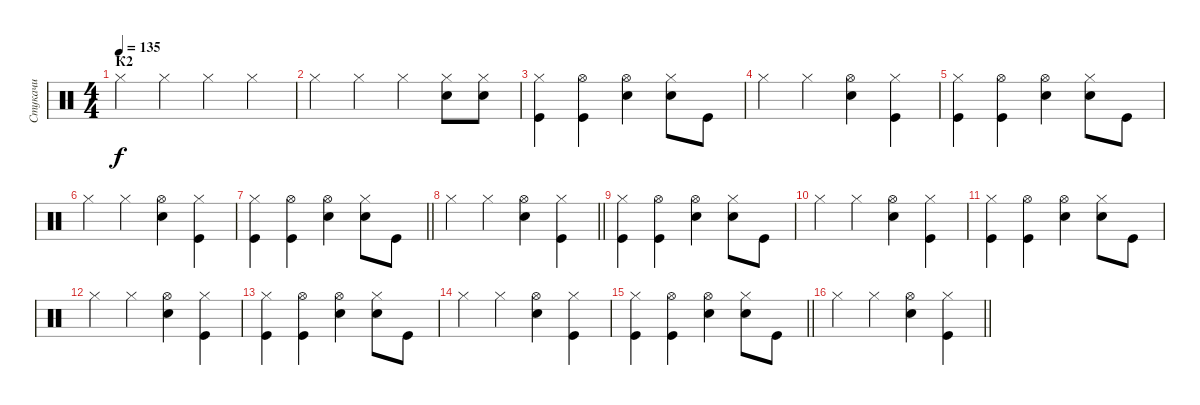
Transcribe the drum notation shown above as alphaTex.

\track ("Стукачи" "Стукачи") {instrument percussion}
\staff {score}
\articulation defaults
\ts (4 4)
\section ("" "К2")
\tempo 135
\clef neutral
\ks c "Hi-Hat (closed)".4{dy f} "Hi-Hat (closed)".4 "Hi-Hat (closed)".4 "Hi-Hat (closed)".4
|
"Hi-Hat (closed)".4 "Hi-Hat (closed)".4 "Hi-Hat (closed)".4 ("Hi-Hat (closed)" "Snare (hit) 2").8 ("Hi-Hat (closed)" "Snare (hit) 2").8 |
("Hi-Hat (closed)" "Kick (hit)").4 ("Hi-Hat (open)" "Kick (hit)").4 ("Hi-Hat (open)" "Snare (hit) 2").4 ("Hi-Hat (closed)" "Snare (hit) 2").8 "Kick (hit)".8 |
"Hi-Hat (closed)".4 "Hi-Hat (closed)".4 ("Hi-Hat (open)" "Snare (hit) 2").4 ("Hi-Hat (closed)" "Kick (hit)").4 |
("Hi-Hat (closed)" "Kick (hit)").4 ("Hi-Hat (open)" "Kick (hit)").4 ("Hi-Hat (open)" "Snare (hit) 2").4 ("Hi-Hat (closed)" "Snare (hit) 2").8 "Kick (hit)".8 |
"Hi-Hat (closed)".4 "Hi-Hat (closed)".4 ("Hi-Hat (open)" "Snare (hit) 2").4 ("Hi-Hat (closed)" "Kick (hit)").4 |
\barLineRight lightlight
("Hi-Hat (closed)" "Kick (hit)").4 ("Hi-Hat (open)" "Kick (hit)").4 ("Hi-Hat (open)" "Snare (hit) 2").4 ("Hi-Hat (closed)" "Snare (hit) 2").8 "Kick (hit)".8 |
\barLineRight lightlight "Hi-Hat (closed)".4 "Hi-Hat (closed)".4
("Hi-Hat (open)" "Snare (hit) 2").4 ("Hi-Hat (closed)" "Kick (hit)").4 |
("Hi-Hat (closed)" "Kick (hit)").4 ("Hi-Hat (open)" "Kick (hit)").4 ("Hi-Hat (open)" "Snare (hit) 2").4 ("Hi-Hat (closed)" "Snare (hit) 2").8 "Kick (hit)".8 |
"Hi-Hat (closed)".4 "Hi-Hat (closed)".4 ("Hi-Hat (open)" "Snare (hit) 2").4 ("Hi-Hat (closed)" "Kick (hit)").4 |
("Hi-Hat (closed)" "Kick (hit)").4 ("Hi-Hat (open)" "Kick (hit)").4 ("Hi-Hat (open)" "Snare (hit) 2").4 ("Hi-Hat (closed)" "Snare (hit) 2").8 "Kick (hit)".8 |
"Hi-Hat (closed)".4 "Hi-Hat (closed)".4 ("Hi-Hat (open)" "Snare (hit) 2").4 ("Hi-Hat (closed)" "Kick (hit)").4 |
("Hi-Hat (closed)" "Kick (hit)").4 ("Hi-Hat (open)" "Kick (hit)").4 ("Hi-Hat (open)" "Snare (hit) 2").4 ("Hi-Hat (closed)" "Snare (hit) 2").8 "Kick (hit)".8 |
"Hi-Hat (closed)".4 "Hi-Hat (closed)".4 ("Hi-Hat (open)" "Snare (hit) 2").4 ("Hi-Hat (closed)" "Kick (hit)").4 |
\barLineRight lightlight
("Hi-Hat (closed)" "Kick (hit)").4 ("Hi-Hat (open)" "Kick (hit)").4 ("Hi-Hat (open)" "Snare (hit) 2").4 ("Hi-Hat (closed)" "Snare (hit) 2").8 "Kick (hit)".8 |
\barLineRight lightlight "Hi-Hat (closed)".4 "Hi-Hat (closed)".4
("Hi-Hat (open)" "Snare (hit) 2").4 ("Hi-Hat (closed)" "Kick (hit)").4
